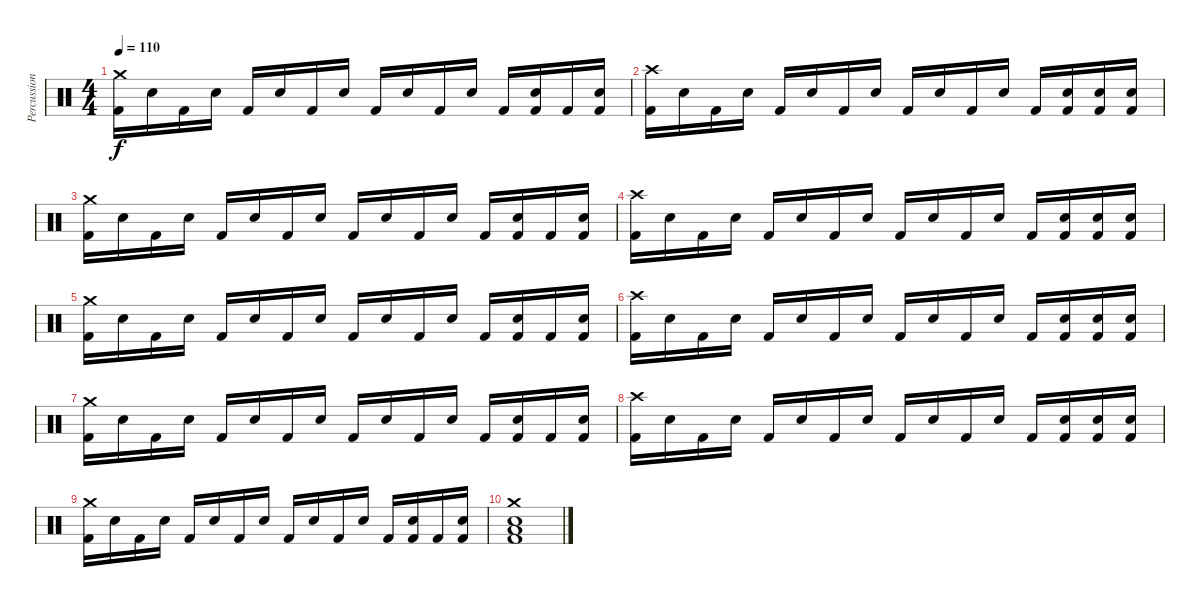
\track ("Percussion" "Percussion") {instrument percussion}
\staff {score}
\articulation defaults
\ts (4 4)
\tempo 110
\clef neutral
\ks c
("Crash medium (hit)" "Kick (hit) 2").16{dy f} "Electric Snare (hit)".16 "Kick (hit) 2".16 "Electric Snare (hit)".16 "Kick (hit) 2".16 "Electric Snare (hit)".16 "Kick (hit) 2".16 "Electric Snare (hit)".16 "Kick (hit) 2".16 "Electric Snare (hit)".16 "Kick (hit) 2".16 "Electric Snare (hit)".16 "Kick (hit) 2".16 ("Electric Snare (hit)" "Kick (hit) 2").16 "Kick (hit) 2".16 ("Electric Snare (hit)" "Kick (hit) 2").16 |
("Crash high (hit)" "Kick (hit) 2").16 "Electric Snare (hit)".16 "Kick (hit) 2".16 "Electric Snare (hit)".16 "Kick (hit) 2".16 "Electric Snare (hit)".16 "Kick (hit) 2".16 "Electric Snare (hit)".16 "Kick (hit) 2".16 "Electric Snare (hit)".16 "Kick (hit) 2".16 "Electric Snare (hit)".16 "Kick (hit) 2".16 ("Electric Snare (hit)" "Kick (hit) 2").16 ("Electric Snare (hit)" "Kick (hit) 2").16 ("Electric Snare (hit)" "Kick (hit) 2").16 |
("Crash medium (hit)" "Kick (hit) 2").16 "Electric Snare (hit)".16 "Kick (hit) 2".16 "Electric Snare (hit)".16 "Kick (hit) 2".16 "Electric Snare (hit)".16 "Kick (hit) 2".16 "Electric Snare (hit)".16 "Kick (hit) 2".16 "Electric Snare (hit)".16 "Kick (hit) 2".16 "Electric Snare (hit)".16 "Kick (hit) 2".16 ("Electric Snare (hit)" "Kick (hit) 2").16 "Kick (hit) 2".16 ("Electric Snare (hit)" "Kick (hit) 2").16 |
("Crash high (hit)" "Kick (hit) 2").16 "Electric Snare (hit)".16 "Kick (hit) 2".16 "Electric Snare (hit)".16 "Kick (hit) 2".16 "Electric Snare (hit)".16 "Kick (hit) 2".16 "Electric Snare (hit)".16 "Kick (hit) 2".16 "Electric Snare (hit)".16 "Kick (hit) 2".16 "Electric Snare (hit)".16 "Kick (hit) 2".16 ("Electric Snare (hit)" "Kick (hit) 2").16 ("Electric Snare (hit)" "Kick (hit) 2").16 ("Electric Snare (hit)" "Kick (hit) 2").16 |
("Crash medium (hit)" "Kick (hit) 2").16 "Electric Snare (hit)".16 "Kick (hit) 2".16 "Electric Snare (hit)".16 "Kick (hit) 2".16 "Electric Snare (hit)".16 "Kick (hit) 2".16 "Electric Snare (hit)".16 "Kick (hit) 2".16 "Electric Snare (hit)".16 "Kick (hit) 2".16 "Electric Snare (hit)".16 "Kick (hit) 2".16 ("Electric Snare (hit)" "Kick (hit) 2").16 "Kick (hit) 2".16 ("Electric Snare (hit)" "Kick (hit) 2").16 |
("Crash high (hit)" "Kick (hit) 2").16 "Electric Snare (hit)".16 "Kick (hit) 2".16 "Electric Snare (hit)".16 "Kick (hit) 2".16 "Electric Snare (hit)".16 "Kick (hit) 2".16 "Electric Snare (hit)".16 "Kick (hit) 2".16 "Electric Snare (hit)".16 "Kick (hit) 2".16 "Electric Snare (hit)".16 "Kick (hit) 2".16 ("Electric Snare (hit)" "Kick (hit) 2").16 ("Electric Snare (hit)" "Kick (hit) 2").16 ("Electric Snare (hit)" "Kick (hit) 2").16 |
("Crash medium (hit)" "Kick (hit) 2").16 "Electric Snare (hit)".16 "Kick (hit) 2".16 "Electric Snare (hit)".16 "Kick (hit) 2".16 "Electric Snare (hit)".16 "Kick (hit) 2".16 "Electric Snare (hit)".16 "Kick (hit) 2".16 "Electric Snare (hit)".16 "Kick (hit) 2".16 "Electric Snare (hit)".16 "Kick (hit) 2".16 ("Electric Snare (hit)" "Kick (hit) 2").16 "Kick (hit) 2".16 ("Electric Snare (hit)" "Kick (hit) 2").16 |
("Crash high (hit)" "Kick (hit) 2").16 "Electric Snare (hit)".16 "Kick (hit) 2".16 "Electric Snare (hit)".16 "Kick (hit) 2".16 "Electric Snare (hit)".16 "Kick (hit) 2".16 "Electric Snare (hit)".16 "Kick (hit) 2".16 "Electric Snare (hit)".16 "Kick (hit) 2".16 "Electric Snare (hit)".16 "Kick (hit) 2".16 ("Electric Snare (hit)" "Kick (hit) 2").16 ("Electric Snare (hit)" "Kick (hit) 2").16 ("Electric Snare (hit)" "Kick (hit) 2").16 |
("Crash medium (hit)" "Kick (hit) 2").16 "Electric Snare (hit)".16 "Kick (hit) 2".16 "Electric Snare (hit)".16 "Kick (hit) 2".16 "Electric Snare (hit)".16 "Kick (hit) 2".16 "Electric Snare (hit)".16 "Kick (hit) 2".16 "Electric Snare (hit)".16 "Kick (hit) 2".16 "Electric Snare (hit)".16 "Kick (hit) 2".16 ("Electric Snare (hit)" "Kick (hit) 2").16 "Kick (hit) 2".16 ("Electric Snare (hit)" "Kick (hit) 2").16 |
("Crash medium (hit)" "Electric Snare (hit)" "Low Floor Tom (hit)" "Kick (hit) 2").1
